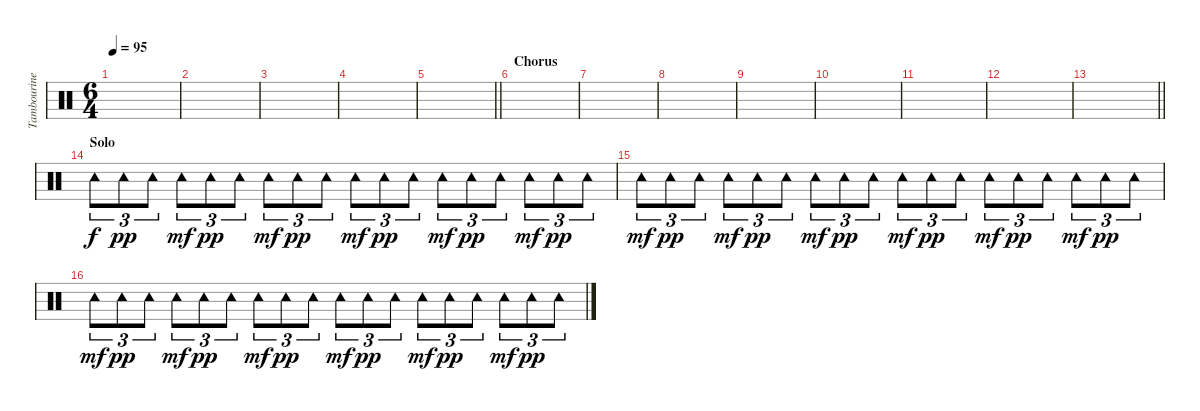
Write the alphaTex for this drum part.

\track ("Tambourine" "Tambourine") {instrument percussion}
\staff {score}
\articulation defaults
\ts (6 4)
\tempo 95
\clef neutral
\ks c
|
|
|
|
\barLineRight lightlight
|
\section ("" "Chorus")
|
|
|
|
|
|
|
\barLineRight lightlight
|
\section ("" "Solo")
"Tambourine (hit)".8{tu (3 2)} "Tambourine (hit)".8{tu (3 2) dy pp} "Tambourine (hit)".8{tu (3 2)} "Tambourine (hit)".8{tu (3 2) dy mf} "Tambourine (hit)".8{tu (3 2) dy pp} "Tambourine (hit)".8{tu (3 2)} "Tambourine (hit)".8{tu (3 2) dy mf} "Tambourine (hit)".8{tu (3 2) dy pp} "Tambourine (hit)".8{tu (3 2)} "Tambourine (hit)".8{tu (3 2) dy mf} "Tambourine (hit)".8{tu (3 2) dy pp} "Tambourine (hit)".8{tu (3 2)} "Tambourine (hit)".8{tu (3 2) dy mf} "Tambourine (hit)".8{tu (3 2) dy pp} "Tambourine (hit)".8{tu (3 2)} "Tambourine (hit)".8{tu (3 2) dy mf} "Tambourine (hit)".8{tu (3 2) dy pp} "Tambourine (hit)".8{tu (3 2)} |
"Tambourine (hit)".8{tu (3 2) dy mf} "Tambourine (hit)".8{tu (3 2) dy pp} "Tambourine (hit)".8{tu (3 2)} "Tambourine (hit)".8{tu (3 2) dy mf} "Tambourine (hit)".8{tu (3 2) dy pp} "Tambourine (hit)".8{tu (3 2)} "Tambourine (hit)".8{tu (3 2) dy mf} "Tambourine (hit)".8{tu (3 2) dy pp} "Tambourine (hit)".8{tu (3 2)} "Tambourine (hit)".8{tu (3 2) dy mf} "Tambourine (hit)".8{tu (3 2) dy pp} "Tambourine (hit)".8{tu (3 2)} "Tambourine (hit)".8{tu (3 2) dy mf} "Tambourine (hit)".8{tu (3 2) dy pp} "Tambourine (hit)".8{tu (3 2)} "Tambourine (hit)".8{tu (3 2) dy mf} "Tambourine (hit)".8{tu (3 2) dy pp} "Tambourine (hit)".8{tu (3 2)} |
"Tambourine (hit)".8{tu (3 2) dy mf} "Tambourine (hit)".8{tu (3 2) dy pp} "Tambourine (hit)".8{tu (3 2)} "Tambourine (hit)".8{tu (3 2) dy mf} "Tambourine (hit)".8{tu (3 2) dy pp} "Tambourine (hit)".8{tu (3 2)} "Tambourine (hit)".8{tu (3 2) dy mf} "Tambourine (hit)".8{tu (3 2) dy pp} "Tambourine (hit)".8{tu (3 2)} "Tambourine (hit)".8{tu (3 2) dy mf} "Tambourine (hit)".8{tu (3 2) dy pp} "Tambourine (hit)".8{tu (3 2)} "Tambourine (hit)".8{tu (3 2) dy mf} "Tambourine (hit)".8{tu (3 2) dy pp} "Tambourine (hit)".8{tu (3 2)} "Tambourine (hit)".8{tu (3 2) dy mf} "Tambourine (hit)".8{tu (3 2) dy pp} "Tambourine (hit)".8{tu (3 2)}
